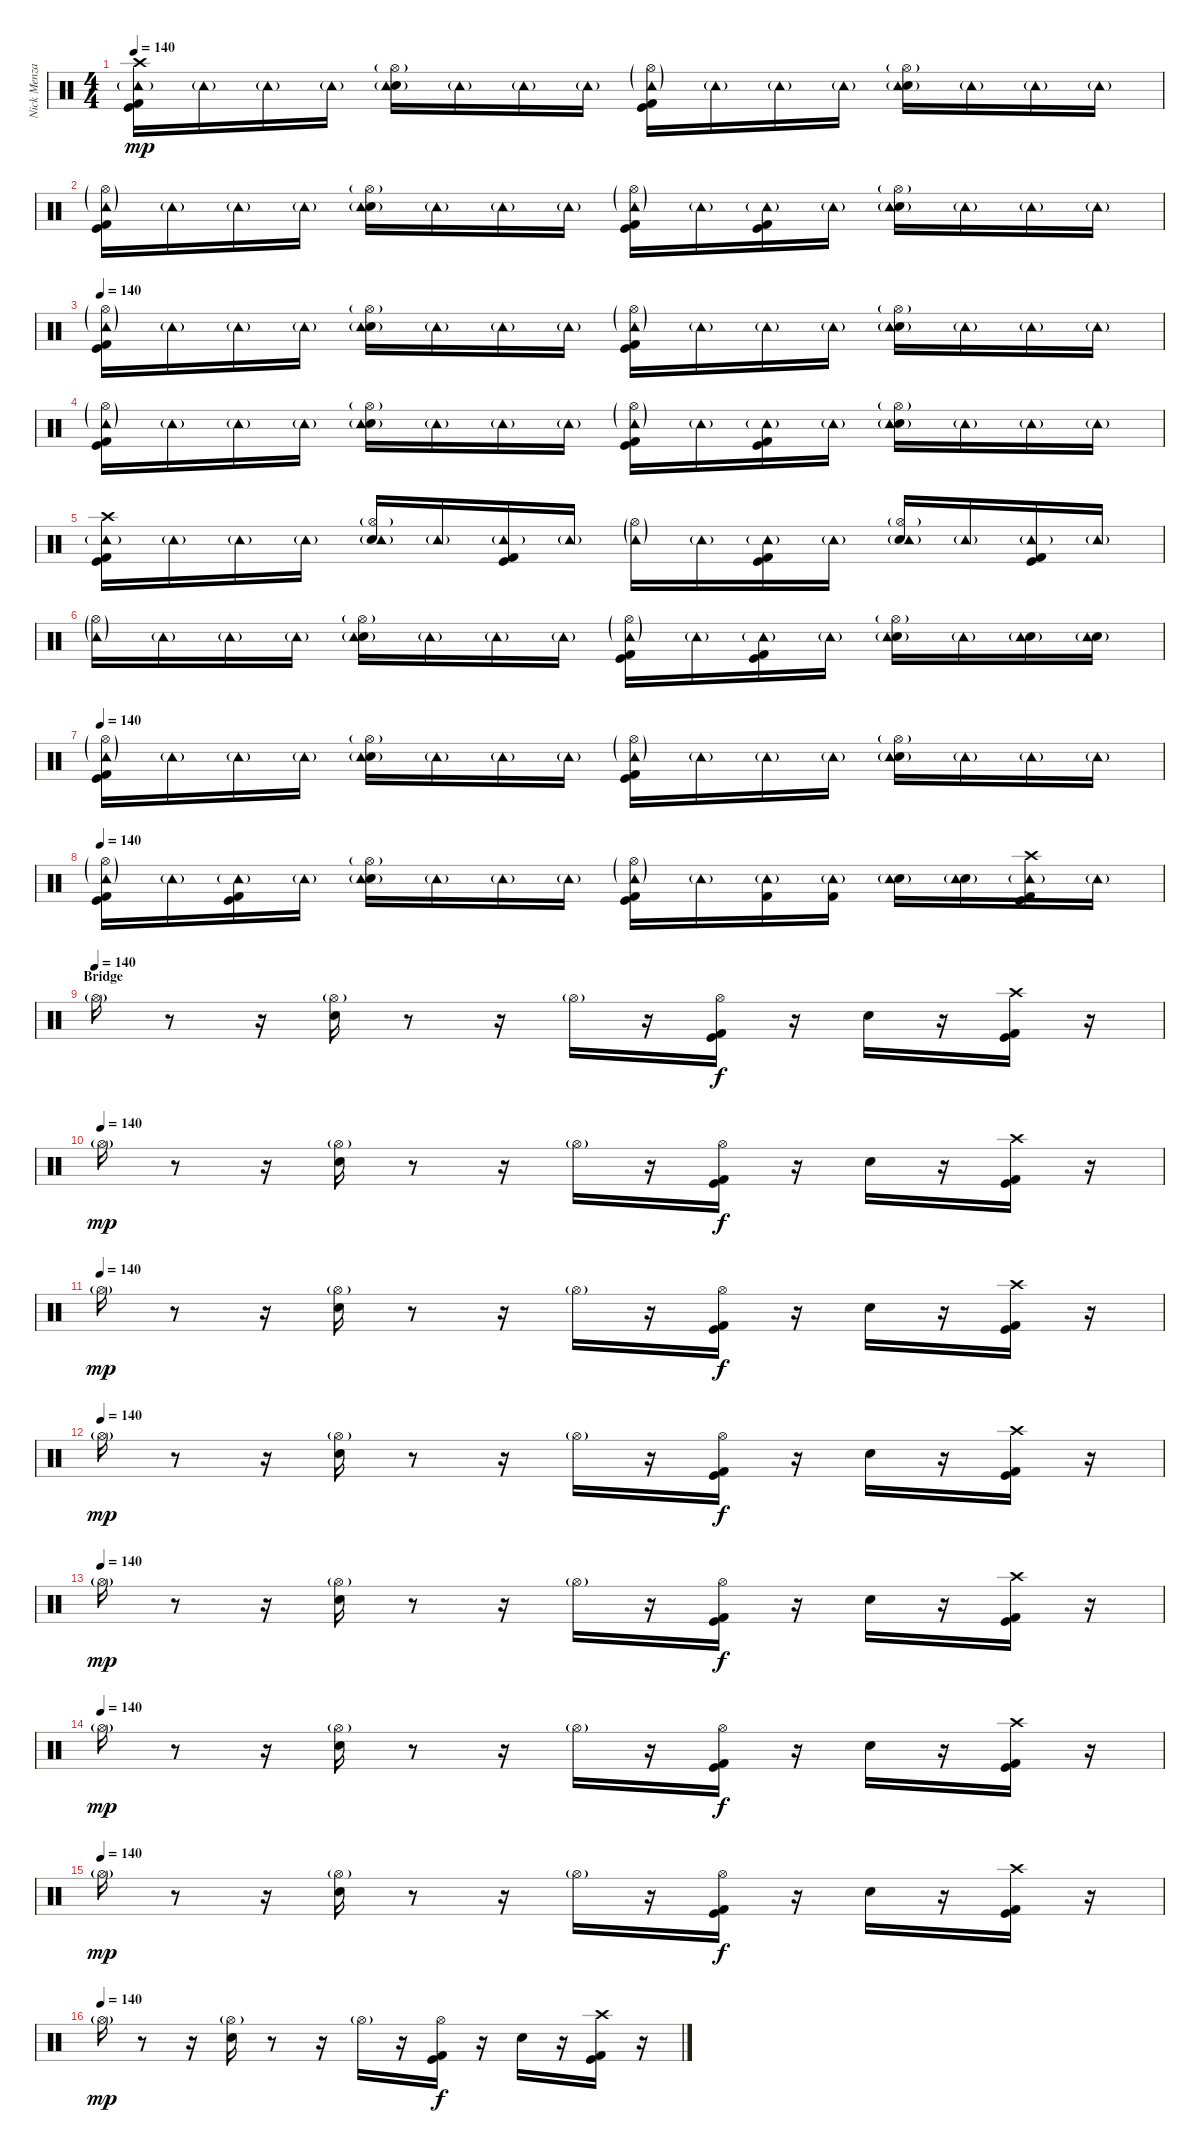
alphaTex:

\track ("Nick Menza" "Nick Menza") {instrument percussion}
\staff {score}
\articulation defaults
\ts (4 4)
\tempo 140
\clef neutral
\ks c
("Crash high (hit)" "Kick (hit)" "Kick (hit) 2" "Tambourine (hit)"{g}).16{dy mp} "Tambourine (hit)"{g}.16 "Tambourine (hit)"{g}.16 "Tambourine (hit)"{g}.16 ("Hi-Hat (open)"{g} "Electric Snare (hit)" "Tambourine (hit)"{g}).16 "Tambourine (hit)"{g}.16 "Tambourine (hit)"{g}.16 "Tambourine (hit)"{g}.16 ("Hi-Hat (open)"{g} "Kick (hit)" "Kick (hit) 2" "Tambourine (hit)"{g}).16 "Tambourine (hit)"{g}.16 "Tambourine (hit)"{g}.16 "Tambourine (hit)"{g}.16 ("Hi-Hat (open)"{g} "Electric Snare (hit)" "Tambourine (hit)"{g}).16 "Tambourine (hit)"{g}.16 "Tambourine (hit)"{g}.16 "Tambourine (hit)"{g}.16 |
("Hi-Hat (open)"{g} "Kick (hit)" "Kick (hit) 2" "Tambourine (hit)"{g}).16 "Tambourine (hit)"{g}.16 "Tambourine (hit)"{g}.16 "Tambourine (hit)"{g}.16 ("Hi-Hat (open)"{g} "Electric Snare (hit)" "Tambourine (hit)"{g}).16 "Tambourine (hit)"{g}.16 "Tambourine (hit)"{g}.16 "Tambourine (hit)"{g}.16 ("Hi-Hat (open)"{g} "Kick (hit)" "Kick (hit) 2" "Tambourine (hit)"{g}).16 "Tambourine (hit)"{g}.16 ("Kick (hit)" "Kick (hit) 2" "Tambourine (hit)"{g}).16 "Tambourine (hit)"{g}.16 ("Hi-Hat (open)"{g} "Electric Snare (hit)" "Tambourine (hit)"{g}).16 "Tambourine (hit)"{g}.16 "Tambourine (hit)"{g}.16 "Tambourine (hit)"{g}.16 |
\tempo 140
("Hi-Hat (open)"{g} "Kick (hit)" "Kick (hit) 2" "Tambourine (hit)"{g}).16 "Tambourine (hit)"{g}.16 "Tambourine (hit)"{g}.16 "Tambourine (hit)"{g}.16 ("Hi-Hat (open)"{g} "Electric Snare (hit)" "Tambourine (hit)"{g}).16 "Tambourine (hit)"{g}.16 "Tambourine (hit)"{g}.16 "Tambourine (hit)"{g}.16 ("Hi-Hat (open)"{g} "Kick (hit)" "Kick (hit) 2" "Tambourine (hit)"{g}).16 "Tambourine (hit)"{g}.16 "Tambourine (hit)"{g}.16 "Tambourine (hit)"{g}.16 ("Hi-Hat (open)"{g} "Electric Snare (hit)" "Tambourine (hit)"{g}).16 "Tambourine (hit)"{g}.16 "Tambourine (hit)"{g}.16 "Tambourine (hit)"{g}.16 |
("Hi-Hat (open)"{g} "Kick (hit)" "Kick (hit) 2" "Tambourine (hit)"{g}).16 "Tambourine (hit)"{g}.16 "Tambourine (hit)"{g}.16 "Tambourine (hit)"{g}.16 ("Hi-Hat (open)"{g} "Electric Snare (hit)" "Tambourine (hit)"{g}).16 "Tambourine (hit)"{g}.16 "Tambourine (hit)"{g}.16 "Tambourine (hit)"{g}.16 ("Hi-Hat (open)"{g} "Kick (hit)" "Kick (hit) 2" "Tambourine (hit)"{g}).16 "Tambourine (hit)"{g}.16 ("Kick (hit)" "Kick (hit) 2" "Tambourine (hit)"{g}).16 "Tambourine (hit)"{g}.16 ("Hi-Hat (open)"{g} "Electric Snare (hit)" "Tambourine (hit)"{g}).16 "Tambourine (hit)"{g}.16 "Tambourine (hit)"{g}.16 "Tambourine (hit)"{g}.16 |
("Crash high (hit)" "Kick (hit)" "Kick (hit) 2" "Tambourine (hit)"{g}).16 "Tambourine (hit)"{g}.16 "Tambourine (hit)"{g}.16 "Tambourine (hit)"{g}.16 ("Hi-Hat (open)"{g} "Electric Snare (hit)" "Tambourine (hit)"{g}).16 "Tambourine (hit)"{g}.16 ("Kick (hit)" "Kick (hit) 2" "Tambourine (hit)"{g}).16 "Tambourine (hit)"{g}.16 ("Hi-Hat (open)"{g} "Tambourine (hit)"{g}).16 "Tambourine (hit)"{g}.16 ("Kick (hit)" "Kick (hit) 2" "Tambourine (hit)"{g}).16 "Tambourine (hit)"{g}.16 ("Hi-Hat (open)"{g} "Electric Snare (hit)" "Tambourine (hit)"{g}).16 "Tambourine (hit)"{g}.16 ("Kick (hit)" "Kick (hit) 2" "Tambourine (hit)"{g}).16 "Tambourine (hit)"{g}.16 |
("Hi-Hat (open)"{g} "Tambourine (hit)"{g}).16 "Tambourine (hit)"{g}.16 "Tambourine (hit)"{g}.16 "Tambourine (hit)"{g}.16 ("Hi-Hat (open)"{g} "Electric Snare (hit)" "Tambourine (hit)"{g}).16 "Tambourine (hit)"{g}.16 "Tambourine (hit)"{g}.16 "Tambourine (hit)"{g}.16 ("Hi-Hat (open)"{g} "Kick (hit)" "Kick (hit) 2" "Tambourine (hit)"{g}).16 "Tambourine (hit)"{g}.16 ("Kick (hit)" "Kick (hit) 2" "Tambourine (hit)"{g}).16 "Tambourine (hit)"{g}.16 ("Hi-Hat (open)"{g} "Electric Snare (hit)" "Tambourine (hit)"{g}).16 "Tambourine (hit)"{g}.16 ("Electric Snare (hit)" "Tambourine (hit)"{g}).16 ("Electric Snare (hit)" "Tambourine (hit)"{g}).16 |
\tempo 140
("Hi-Hat (open)"{g} "Kick (hit)" "Kick (hit) 2" "Tambourine (hit)"{g}).16 "Tambourine (hit)"{g}.16 "Tambourine (hit)"{g}.16 "Tambourine (hit)"{g}.16 ("Hi-Hat (open)"{g} "Electric Snare (hit)" "Tambourine (hit)"{g}).16 "Tambourine (hit)"{g}.16 "Tambourine (hit)"{g}.16 "Tambourine (hit)"{g}.16 ("Hi-Hat (open)"{g} "Kick (hit)" "Kick (hit) 2" "Tambourine (hit)"{g}).16 "Tambourine (hit)"{g}.16 "Tambourine (hit)"{g}.16 "Tambourine (hit)"{g}.16 ("Hi-Hat (open)"{g} "Electric Snare (hit)" "Tambourine (hit)"{g}).16 "Tambourine (hit)"{g}.16 "Tambourine (hit)"{g}.16 "Tambourine (hit)"{g}.16 |
\tempo 140
("Hi-Hat (open)"{g} "Kick (hit)" "Kick (hit) 2" "Tambourine (hit)"{g}).16 "Tambourine (hit)"{g}.16 ("Kick (hit)" "Kick (hit) 2" "Tambourine (hit)"{g}).16 "Tambourine (hit)"{g}.16 ("Hi-Hat (open)"{g} "Electric Snare (hit)" "Tambourine (hit)"{g}).16 "Tambourine (hit)"{g}.16 "Tambourine (hit)"{g}.16 "Tambourine (hit)"{g}.16 ("Hi-Hat (open)"{g} "Kick (hit)" "Kick (hit) 2" "Tambourine (hit)"{g}).16 "Tambourine (hit)"{g}.16 ("Kick (hit) 2" "Tambourine (hit)"{g}).16 ("Kick (hit) 2" "Tambourine (hit)"{g}).16 ("Electric Snare (hit)" "Tambourine (hit)"{g}).16 ("Electric Snare (hit)" "Tambourine (hit)"{g}).16 ("Crash high (hit)" "Kick (hit)" "Kick (hit) 2" "Tambourine (hit)"{g}).16 "Tambourine (hit)"{g}.16 |
\section ("" "Bridge")
\tempo (140)
"Hi-Hat (open)"{g}.16 r.8 r.16 ("Hi-Hat (open)"{g} "Electric Snare (hit)").16 r.8 r.16 "Hi-Hat (open)"{g}.16 r.16 ("Hi-Hat (open)" "Kick (hit)" "Kick (hit) 2").16{dy f} r.16 "Electric Snare (hit)".16 r.16 ("Crash high (hit)" "Kick (hit)" "Kick (hit) 2").16 r.16 |
\tempo (140)
"Hi-Hat (open)"{g}.16{dy mp} r.8 r.16 ("Hi-Hat (open)"{g} "Electric Snare (hit)").16 r.8 r.16 "Hi-Hat (open)"{g}.16 r.16 ("Hi-Hat (open)" "Kick (hit)" "Kick (hit) 2").16{dy f} r.16 "Electric Snare (hit)".16 r.16 ("Crash high (hit)" "Kick (hit)" "Kick (hit) 2").16 r.16 |
\tempo (140)
"Hi-Hat (open)"{g}.16{dy mp} r.8 r.16 ("Hi-Hat (open)"{g} "Electric Snare (hit)").16 r.8 r.16 "Hi-Hat (open)"{g}.16 r.16 ("Hi-Hat (open)" "Kick (hit)" "Kick (hit) 2").16{dy f} r.16 "Electric Snare (hit)".16 r.16 ("Crash high (hit)" "Kick (hit)" "Kick (hit) 2").16 r.16 |
\tempo (140)
"Hi-Hat (open)"{g}.16{dy mp} r.8 r.16 ("Hi-Hat (open)"{g} "Electric Snare (hit)").16 r.8 r.16 "Hi-Hat (open)"{g}.16 r.16 ("Hi-Hat (open)" "Kick (hit)" "Kick (hit) 2").16{dy f} r.16 "Electric Snare (hit)".16 r.16 ("Crash high (hit)" "Kick (hit)" "Kick (hit) 2").16 r.16 |
\tempo (140)
"Hi-Hat (open)"{g}.16{dy mp} r.8 r.16 ("Hi-Hat (open)"{g} "Electric Snare (hit)").16 r.8 r.16 "Hi-Hat (open)"{g}.16 r.16 ("Hi-Hat (open)" "Kick (hit)" "Kick (hit) 2").16{dy f} r.16 "Electric Snare (hit)".16 r.16 ("Crash high (hit)" "Kick (hit)" "Kick (hit) 2").16 r.16 |
\tempo (140)
"Hi-Hat (open)"{g}.16{dy mp} r.8 r.16 ("Hi-Hat (open)"{g} "Electric Snare (hit)").16 r.8 r.16 "Hi-Hat (open)"{g}.16 r.16 ("Hi-Hat (open)" "Kick (hit)" "Kick (hit) 2").16{dy f} r.16 "Electric Snare (hit)".16 r.16 ("Crash high (hit)" "Kick (hit)" "Kick (hit) 2").16 r.16 |
\tempo (140)
"Hi-Hat (open)"{g}.16{dy mp} r.8 r.16 ("Hi-Hat (open)"{g} "Electric Snare (hit)").16 r.8 r.16 "Hi-Hat (open)"{g}.16 r.16 ("Hi-Hat (open)" "Kick (hit)" "Kick (hit) 2").16{dy f} r.16 "Electric Snare (hit)".16 r.16 ("Crash high (hit)" "Kick (hit)" "Kick (hit) 2").16 r.16 |
\tempo (140)
"Hi-Hat (open)"{g}.16{dy mp} r.8 r.16 ("Hi-Hat (open)"{g} "Electric Snare (hit)").16 r.8 r.16 "Hi-Hat (open)"{g}.16 r.16 ("Hi-Hat (open)" "Kick (hit)" "Kick (hit) 2").16{dy f} r.16 "Electric Snare (hit)".16 r.16 ("Crash high (hit)" "Kick (hit)" "Kick (hit) 2").16 r.16
